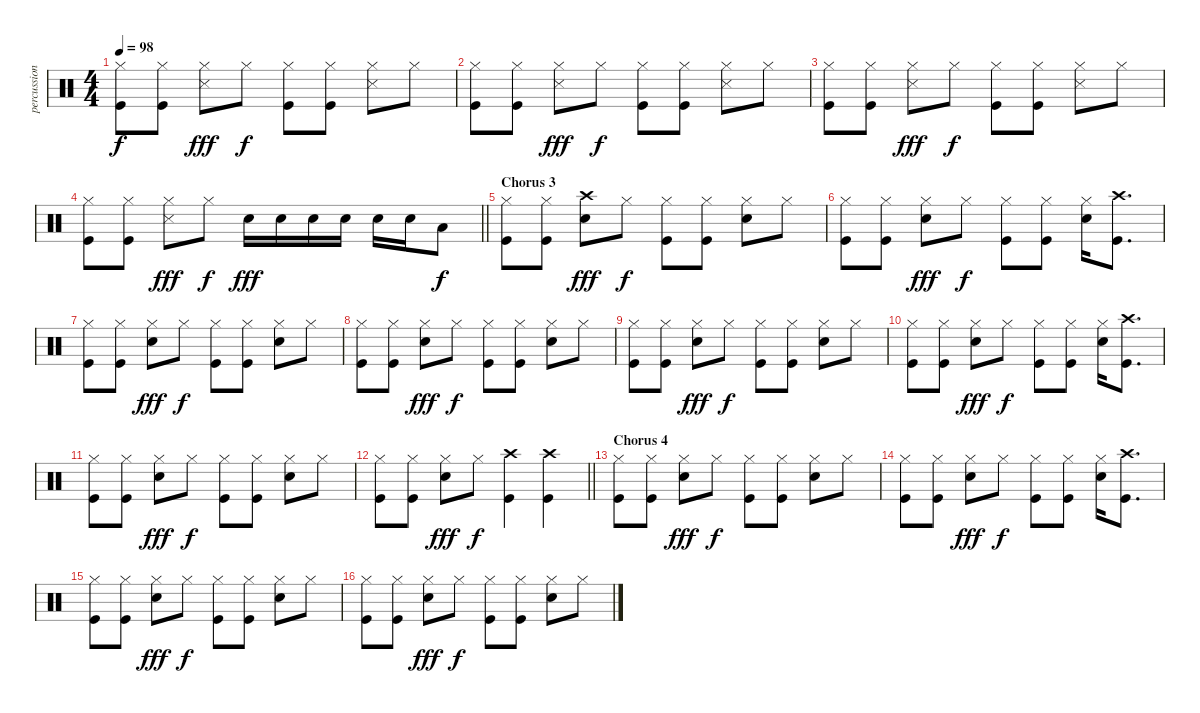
\track ("percussion" "percussion") {instrument percussion}
\staff {score}
\articulation defaults
\ts (4 4)
\tempo 98
\clef neutral
\ks c
("Hi-Hat (closed)" "Kick (hit)").8{dy f} ("Hi-Hat (closed)" "Kick (hit)").8 ("Snare (side stick) 3" "Hi-Hat (closed)").8{dy fff} "Hi-Hat (closed)".8{dy f} ("Hi-Hat (closed)" "Kick (hit)").8 ("Hi-Hat (closed)" "Kick (hit)").8 ("Snare (side stick) 3" "Hi-Hat (closed)").8 "Hi-Hat (closed)".8 |
("Hi-Hat (closed)" "Kick (hit)").8 ("Hi-Hat (closed)" "Kick (hit)").8 ("Snare (side stick) 3" "Hi-Hat (closed)").8{dy fff} "Hi-Hat (closed)".8{dy f} ("Hi-Hat (closed)" "Kick (hit)").8 ("Hi-Hat (closed)" "Kick (hit)").8 ("Snare (side stick) 3" "Hi-Hat (closed)").8 "Hi-Hat (closed)".8 |
("Hi-Hat (closed)" "Kick (hit)").8 ("Hi-Hat (closed)" "Kick (hit)").8 ("Snare (side stick) 3" "Hi-Hat (closed)").8{dy fff} "Hi-Hat (closed)".8{dy f} ("Hi-Hat (closed)" "Kick (hit)").8 ("Hi-Hat (closed)" "Kick (hit)").8 ("Snare (side stick) 3" "Hi-Hat (closed)").8 "Hi-Hat (closed)".8 |
\barLineRight lightlight
("Hi-Hat (closed)" "Kick (hit)").8 ("Hi-Hat (closed)" "Kick (hit)").8 ("Snare (side stick) 3" "Hi-Hat (closed)").8{dy fff} "Hi-Hat (closed)".8{dy f} "Electric Snare (hit)".16{dy fff} "Electric Snare (hit)".16 "Electric Snare (hit)".16 "Electric Snare (hit)".16 "Electric Snare (hit)".16 "Electric Snare (hit)".16 "Low Tom (hit)".8{dy f} |
\section ("" "Chorus 3")
("Hi-Hat (closed)" "Kick (hit)").8 ("Hi-Hat (closed)" "Kick (hit)").8 ("Crash high (hit)" "Electric Snare (hit)").8{dy fff} "Hi-Hat (closed)".8{dy f} ("Hi-Hat (closed)" "Kick (hit)").8 ("Hi-Hat (closed)" "Kick (hit)").8 ("Electric Snare (hit)" "Hi-Hat (closed)").8 "Hi-Hat (closed)".8 |
("Hi-Hat (closed)" "Kick (hit)").8 ("Hi-Hat (closed)" "Kick (hit)").8 ("Electric Snare (hit)" "Hi-Hat (closed)").8{dy fff} "Hi-Hat (closed)".8{dy f} ("Hi-Hat (closed)" "Kick (hit)").8 ("Hi-Hat (closed)" "Kick (hit)").8 ("Electric Snare (hit)" "Hi-Hat (closed)").16 ("Crash high (hit)" "Kick (hit)").8{d} |
("Hi-Hat (closed)" "Kick (hit)").8 ("Hi-Hat (closed)" "Kick (hit)").8 ("Electric Snare (hit)" "Hi-Hat (closed)").8{dy fff} "Hi-Hat (closed)".8{dy f} ("Hi-Hat (closed)" "Kick (hit)").8 ("Hi-Hat (closed)" "Kick (hit)").8 ("Electric Snare (hit)" "Hi-Hat (closed)").8 "Hi-Hat (closed)".8 |
("Hi-Hat (closed)" "Kick (hit)").8 ("Hi-Hat (closed)" "Kick (hit)").8 ("Electric Snare (hit)" "Hi-Hat (closed)").8{dy fff} "Hi-Hat (closed)".8{dy f} ("Hi-Hat (closed)" "Kick (hit)").8 ("Hi-Hat (closed)" "Kick (hit)").8 ("Electric Snare (hit)" "Hi-Hat (closed)").8 "Hi-Hat (closed)".8 |
("Hi-Hat (closed)" "Kick (hit)").8 ("Hi-Hat (closed)" "Kick (hit)").8 ("Electric Snare (hit)" "Hi-Hat (closed)").8{dy fff} "Hi-Hat (closed)".8{dy f} ("Hi-Hat (closed)" "Kick (hit)").8 ("Hi-Hat (closed)" "Kick (hit)").8 ("Electric Snare (hit)" "Hi-Hat (closed)").8 "Hi-Hat (closed)".8 |
("Hi-Hat (closed)" "Kick (hit)").8 ("Hi-Hat (closed)" "Kick (hit)").8 ("Electric Snare (hit)" "Hi-Hat (closed)").8{dy fff} "Hi-Hat (closed)".8{dy f} ("Hi-Hat (closed)" "Kick (hit)").8 ("Hi-Hat (closed)" "Kick (hit)").8 ("Electric Snare (hit)" "Hi-Hat (closed)").16 ("Crash high (hit)" "Kick (hit)").8{d} |
("Hi-Hat (closed)" "Kick (hit)").8 ("Hi-Hat (closed)" "Kick (hit)").8 ("Electric Snare (hit)" "Hi-Hat (closed)").8{dy fff} "Hi-Hat (closed)".8{dy f} ("Hi-Hat (closed)" "Kick (hit)").8 ("Hi-Hat (closed)" "Kick (hit)").8 ("Electric Snare (hit)" "Hi-Hat (closed)").8 "Hi-Hat (closed)".8 |
\barLineRight lightlight
("Hi-Hat (closed)" "Kick (hit)").8 ("Hi-Hat (closed)" "Kick (hit)").8 ("Electric Snare (hit)" "Hi-Hat (closed)").8{dy fff} "Hi-Hat (closed)".8{dy f} ("Crash high (hit)" "Kick (hit)").4 ("Crash high (hit)" "Kick (hit)").4 |
\section ("" "Chorus 4")
("Hi-Hat (closed)" "Kick (hit)").8 ("Hi-Hat (closed)" "Kick (hit)").8 ("Electric Snare (hit)" "Hi-Hat (closed)").8{dy fff} "Hi-Hat (closed)".8{dy f} ("Hi-Hat (closed)" "Kick (hit)").8 ("Hi-Hat (closed)" "Kick (hit)").8 ("Electric Snare (hit)" "Hi-Hat (closed)").8 "Hi-Hat (closed)".8 |
("Hi-Hat (closed)" "Kick (hit)").8 ("Hi-Hat (closed)" "Kick (hit)").8 ("Electric Snare (hit)" "Hi-Hat (closed)").8{dy fff} "Hi-Hat (closed)".8{dy f} ("Hi-Hat (closed)" "Kick (hit)").8 ("Hi-Hat (closed)" "Kick (hit)").8 ("Electric Snare (hit)" "Hi-Hat (closed)").16 ("Crash high (hit)" "Kick (hit)").8{d} |
("Hi-Hat (closed)" "Kick (hit)").8 ("Hi-Hat (closed)" "Kick (hit)").8 ("Electric Snare (hit)" "Hi-Hat (closed)").8{dy fff} "Hi-Hat (closed)".8{dy f} ("Hi-Hat (closed)" "Kick (hit)").8 ("Hi-Hat (closed)" "Kick (hit)").8 ("Electric Snare (hit)" "Hi-Hat (closed)").8 "Hi-Hat (closed)".8 |
("Hi-Hat (closed)" "Kick (hit)").8 ("Hi-Hat (closed)" "Kick (hit)").8 ("Electric Snare (hit)" "Hi-Hat (closed)").8{dy fff} "Hi-Hat (closed)".8{dy f} ("Hi-Hat (closed)" "Kick (hit)").8 ("Hi-Hat (closed)" "Kick (hit)").8 ("Electric Snare (hit)" "Hi-Hat (closed)").8 "Hi-Hat (closed)".8
